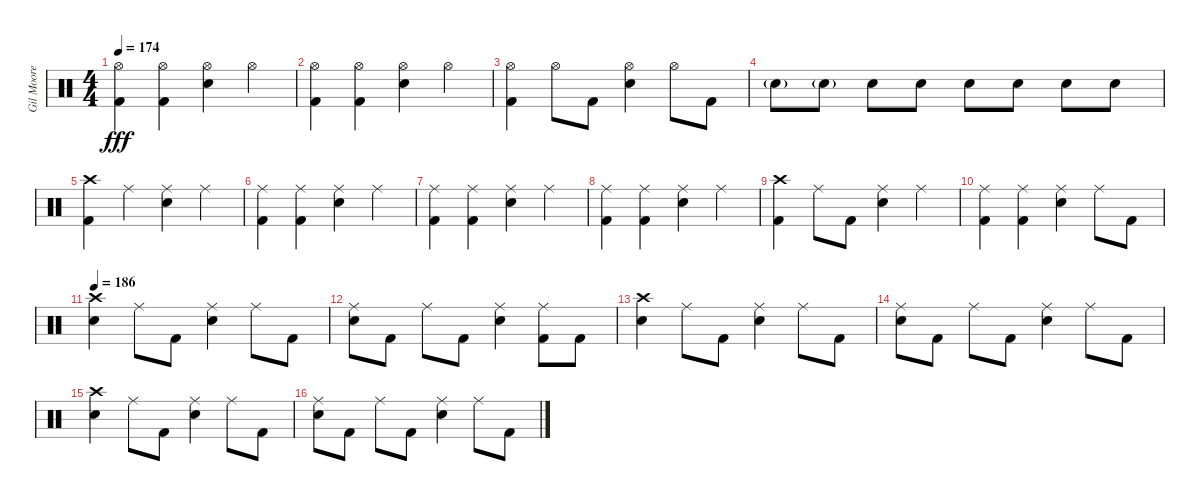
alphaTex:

\track ("Gil Moore" "Gil Moore") {instrument percussion}
\staff {score}
\articulation defaults
\ts (4 4)
\tempo 174
\clef neutral
\ks c
("Hi-Hat (open)" "Kick (hit) 2").4{dy fff} ("Hi-Hat (open)" "Kick (hit) 2").4 ("Hi-Hat (open)" "Snare (hit) 2").4 "Hi-Hat (open)".4 |
("Hi-Hat (open)" "Kick (hit) 2").4 ("Hi-Hat (open)" "Kick (hit) 2").4 ("Hi-Hat (open)" "Snare (hit) 2").4 "Hi-Hat (open)".4 |
("Hi-Hat (open)" "Kick (hit) 2").4 "Hi-Hat (open)".8 "Kick (hit) 2".8 ("Hi-Hat (open)" "Snare (hit) 2").4 "Hi-Hat (open)".8 "Kick (hit) 2".8 |
"Snare (hit) 2"{g}.8 "Snare (hit) 2"{g}.8 "Snare (hit) 2".8 "Snare (hit) 2".8 "Snare (hit) 2".8 "Snare (hit) 2".8 "Snare (hit) 2".8 "Snare (hit) 2".8 |
("Crash high (hit)" "Kick (hit) 2").4 "Ride (middle)".4 ("Ride (middle)" "Snare (hit) 2").4 "Ride (middle)".4 |
("Ride (middle)" "Kick (hit) 2").4 ("Ride (middle)" "Kick (hit) 2").4 ("Ride (middle)" "Snare (hit) 2").4 "Ride (middle)".4 |
("Ride (middle)" "Kick (hit) 2").4 ("Ride (middle)" "Kick (hit) 2").4 ("Ride (middle)" "Snare (hit) 2").4 "Ride (middle)".4 |
("Ride (middle)" "Kick (hit) 2").4 ("Ride (middle)" "Kick (hit) 2").4 ("Ride (middle)" "Snare (hit) 2").4 "Ride (middle)".4 |
("Crash high (hit)" "Kick (hit) 2").4 "Ride (middle)".8 "Kick (hit) 2".8 ("Ride (middle)" "Snare (hit) 2").4 "Ride (middle)".4 |
("Ride (middle)" "Kick (hit) 2").4 ("Ride (middle)" "Kick (hit) 2").4 ("Ride (middle)" "Snare (hit) 2").4 "Ride (middle)".8 "Kick (hit) 2".8 |
\tempo 186
("Crash high (hit)" "Snare (hit) 2").4 "Ride (middle)".8 "Kick (hit) 2".8 ("Ride (middle)" "Snare (hit) 2").4 "Ride (middle)".8 "Kick (hit) 2".8 |
("Ride (middle)" "Snare (hit) 2").8 "Kick (hit) 2".8 "Ride (middle)".8 "Kick (hit) 2".8 ("Ride (middle)" "Snare (hit) 2").4 ("Ride (middle)" "Kick (hit) 2").8 "Kick (hit) 2".8 |
("Crash high (hit)" "Snare (hit) 2").4 "Ride (middle)".8 "Kick (hit) 2".8 ("Ride (middle)" "Snare (hit) 2").4 "Ride (middle)".8 "Kick (hit) 2".8 |
("Ride (middle)" "Snare (hit) 2").8 "Kick (hit) 2".8 "Ride (middle)".8 "Kick (hit) 2".8 ("Ride (middle)" "Snare (hit) 2").4 "Ride (middle)".8 "Kick (hit) 2".8 |
("Crash high (hit)" "Snare (hit) 2").4 "Ride (middle)".8 "Kick (hit) 2".8 ("Ride (middle)" "Snare (hit) 2").4 "Ride (middle)".8 "Kick (hit) 2".8 |
("Ride (middle)" "Snare (hit) 2").8 "Kick (hit) 2".8 "Ride (middle)".8 "Kick (hit) 2".8 ("Ride (middle)" "Snare (hit) 2").4 "Ride (middle)".8 "Kick (hit) 2".8
